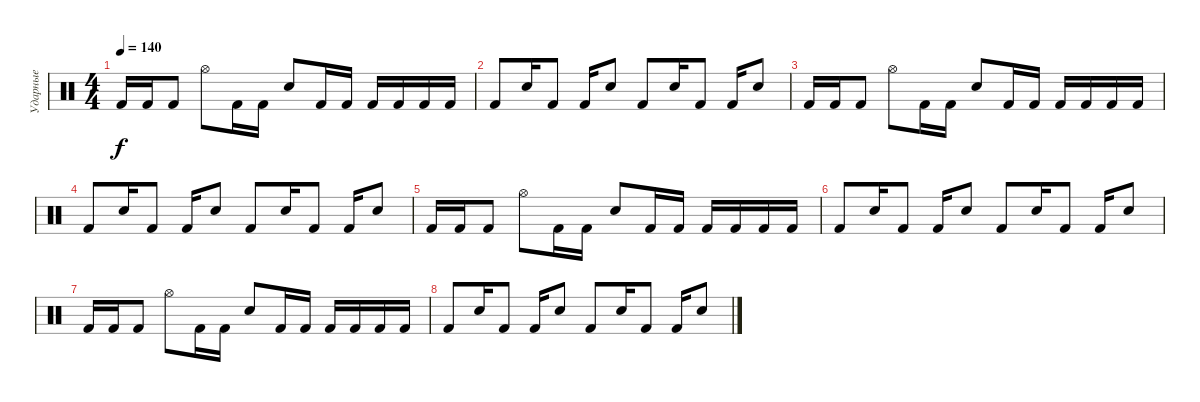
\track ("Ударные" "Ударные") {instrument percussion}
\staff {score}
\articulation defaults
\ts (4 4)
\tempo 140
\clef neutral
\ks c "Kick (hit) 2".16{dy f} "Kick (hit) 2".16 "Kick (hit) 2".8 "Hi-Hat (open)".8 "Kick (hit) 2".16 "Kick (hit) 2".16 "Electric Snare (hit)".8 "Kick (hit) 2".16 "Kick (hit) 2".16 "Kick (hit) 2".16 "Kick (hit) 2".16 "Kick (hit) 2".16 "Kick (hit) 2".16
|
"Kick (hit) 2".8 "Electric Snare (hit)".16 "Kick (hit) 2".8 "Kick (hit) 2".16 "Electric Snare (hit)".8 "Kick (hit) 2".8 "Electric Snare (hit)".16 "Kick (hit) 2".8 "Kick (hit) 2".16 "Electric Snare (hit)".8 |
"Kick (hit) 2".16 "Kick (hit) 2".16 "Kick (hit) 2".8 "Hi-Hat (open)".8 "Kick (hit) 2".16 "Kick (hit) 2".16 "Electric Snare (hit)".8 "Kick (hit) 2".16 "Kick (hit) 2".16 "Kick (hit) 2".16 "Kick (hit) 2".16 "Kick (hit) 2".16 "Kick (hit) 2".16 |
"Kick (hit) 2".8 "Electric Snare (hit)".16 "Kick (hit) 2".8 "Kick (hit) 2".16 "Electric Snare (hit)".8 "Kick (hit) 2".8 "Electric Snare (hit)".16 "Kick (hit) 2".8 "Kick (hit) 2".16 "Electric Snare (hit)".8 |
"Kick (hit) 2".16 "Kick (hit) 2".16 "Kick (hit) 2".8 "Hi-Hat (open)".8 "Kick (hit) 2".16 "Kick (hit) 2".16 "Electric Snare (hit)".8 "Kick (hit) 2".16 "Kick (hit) 2".16 "Kick (hit) 2".16 "Kick (hit) 2".16 "Kick (hit) 2".16 "Kick (hit) 2".16 |
"Kick (hit) 2".8 "Electric Snare (hit)".16 "Kick (hit) 2".8 "Kick (hit) 2".16 "Electric Snare (hit)".8 "Kick (hit) 2".8 "Electric Snare (hit)".16 "Kick (hit) 2".8 "Kick (hit) 2".16 "Electric Snare (hit)".8 |
"Kick (hit) 2".16 "Kick (hit) 2".16 "Kick (hit) 2".8 "Hi-Hat (open)".8 "Kick (hit) 2".16 "Kick (hit) 2".16 "Electric Snare (hit)".8 "Kick (hit) 2".16 "Kick (hit) 2".16 "Kick (hit) 2".16 "Kick (hit) 2".16 "Kick (hit) 2".16 "Kick (hit) 2".16 |
"Kick (hit) 2".8 "Electric Snare (hit)".16 "Kick (hit) 2".8 "Kick (hit) 2".16 "Electric Snare (hit)".8 "Kick (hit) 2".8 "Electric Snare (hit)".16 "Kick (hit) 2".8 "Kick (hit) 2".16 "Electric Snare (hit)".8
